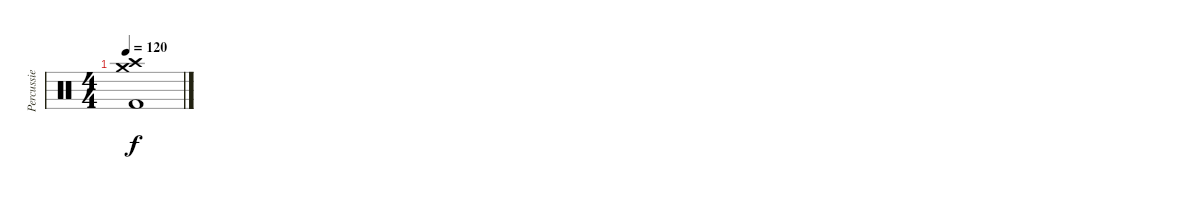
\track ("Percussie" "Percussie") {instrument percussion}
\staff {score}
\articulation defaults
\ts (4 4)
\tempo 120
\clef neutral
\ks c
("Crash medium (hit)" "Crash high (hit)" "Kick (hit) 2").1{dy f}
